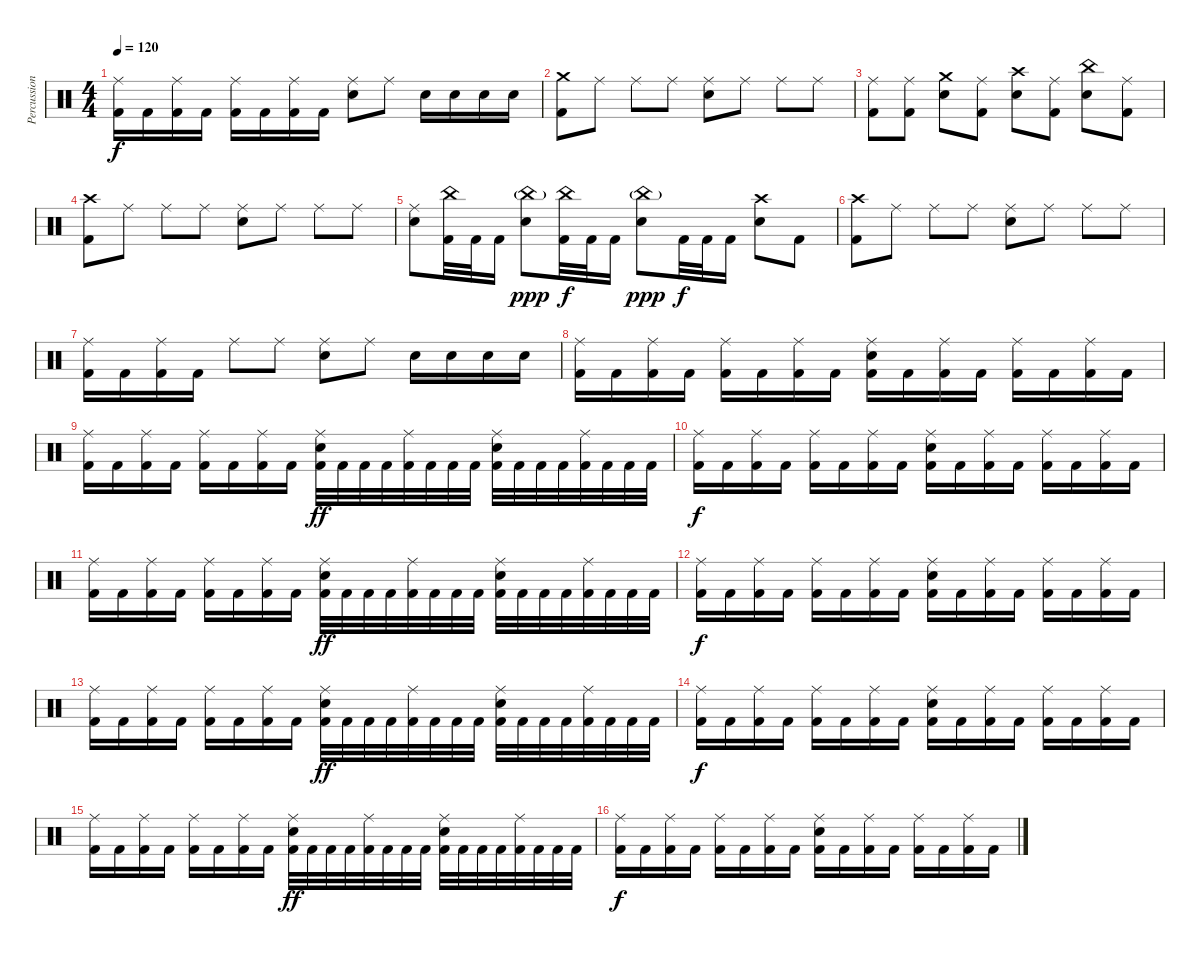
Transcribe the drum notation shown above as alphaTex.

\track ("Percussion" "Percussion") {instrument percussion}
\staff {score}
\articulation defaults
\ts (4 4)
\tempo 120
\clef neutral
\ks c
("Ride (middle)" "Kick (hit) 2").16{dy f} "Kick (hit) 2".16 ("Ride (middle)" "Kick (hit) 2").16 "Kick (hit) 2".16 ("Ride (middle)" "Kick (hit) 2").16 "Kick (hit) 2".16 ("Ride (middle)" "Kick (hit) 2").16 "Kick (hit) 2".16 ("Ride (middle)" "Electric Snare (hit)").8 "Ride (middle)".8 "Electric Snare (hit)".16 "Electric Snare (hit)".16 "Electric Snare (hit)".16 "Electric Snare (hit)".16 |
("Crash medium (hit)" "Kick (hit) 2").8 "Ride (middle)".8 "Ride (middle)".8 "Ride (middle)".8 ("Ride (middle)" "Electric Snare (hit)").8 "Ride (middle)".8 "Ride (middle)".8 "Ride (middle)".8 |
("Ride (middle)" "Kick (hit) 2").8 ("Ride (middle)" "Kick (hit) 2").8 ("Crash medium (hit)" "Electric Snare (hit)").8 ("Ride (middle)" "Kick (hit) 2").8 ("Crash high (hit)" "Electric Snare (hit)").8 ("Ride (middle)" "Kick (hit) 2").8 ("China (hit)" "Electric Snare (hit)").8 ("Ride (middle)" "Kick (hit) 2").8 |
("Crash high (hit)" "Kick (hit) 2").8 "Ride (middle)".8 "Ride (middle)".8 "Ride (middle)".8 ("Ride (middle)" "Electric Snare (hit)").8 "Ride (middle)".8 "Ride (middle)".8 "Ride (middle)".8 |
("Ride (middle)" "Electric Snare (hit)").8 ("China (hit)" "Kick (hit) 2").32 "Kick (hit) 2".32 "Kick (hit) 2".16 ("China (hit)"{g} "Electric Snare (hit)").8{dy ppp} ("China (hit)" "Kick (hit) 2").32{dy f} "Kick (hit) 2".32 "Kick (hit) 2".16 ("China (hit)"{g} "Electric Snare (hit)").8{dy ppp} "Kick (hit) 2".32{dy f} "Kick (hit) 2".32 "Kick (hit) 2".16 ("Crash high (hit)" "Electric Snare (hit)").8 "Kick (hit) 2".8 |
("Crash high (hit)" "Kick (hit) 2").8 "Ride (middle)".8 "Ride (middle)".8 "Ride (middle)".8 ("Ride (middle)" "Electric Snare (hit)").8 "Ride (middle)".8 "Ride (middle)".8 "Ride (middle)".8 |
("Ride (middle)" "Kick (hit) 2").16 "Kick (hit) 2".16 ("Ride (middle)" "Kick (hit) 2").16 "Kick (hit) 2".16 "Ride (middle)".8 "Ride (middle)".8 ("Ride (middle)" "Electric Snare (hit)").8 "Ride (middle)".8 "Electric Snare (hit)".16 "Electric Snare (hit)".16 "Electric Snare (hit)".16 "Electric Snare (hit)".16 |
("Ride (middle)" "Kick (hit) 2").16 "Kick (hit) 2".16 ("Ride (middle)" "Kick (hit) 2").16 "Kick (hit) 2".16 ("Ride (middle)" "Kick (hit) 2").16 "Kick (hit) 2".16 ("Ride (middle)" "Kick (hit) 2").16 "Kick (hit) 2".16 ("Ride (middle)" "Electric Snare (hit)" "Kick (hit) 2").16 "Kick (hit) 2".16 ("Ride (middle)" "Kick (hit) 2").16 "Kick (hit) 2".16 ("Ride (middle)" "Kick (hit) 2").16 "Kick (hit) 2".16 ("Ride (middle)" "Kick (hit) 2").16 "Kick (hit) 2".16 |
("Ride (middle)" "Kick (hit) 2").16 "Kick (hit) 2".16 ("Ride (middle)" "Kick (hit) 2").16 "Kick (hit) 2".16 ("Ride (middle)" "Kick (hit) 2").16 "Kick (hit) 2".16 ("Ride (middle)" "Kick (hit) 2").16 "Kick (hit) 2".16 ("Ride (middle)" "Electric Snare (hit)" "Kick (hit) 2").32{dy ff} "Kick (hit) 2".32 "Kick (hit) 2".32 "Kick (hit) 2".32 ("Ride (middle)" "Kick (hit) 2").32 "Kick (hit) 2".32 "Kick (hit) 2".32 "Kick (hit) 2".32 ("Ride (middle)" "Electric Snare (hit)" "Kick (hit) 2").32 "Kick (hit) 2".32 "Kick (hit) 2".32 "Kick (hit) 2".32 ("Ride (middle)" "Kick (hit) 2").32 "Kick (hit) 2".32 "Kick (hit) 2".32 "Kick (hit) 2".32 |
("Ride (middle)" "Kick (hit) 2").16{dy f} "Kick (hit) 2".16 ("Ride (middle)" "Kick (hit) 2").16 "Kick (hit) 2".16 ("Ride (middle)" "Kick (hit) 2").16 "Kick (hit) 2".16 ("Ride (middle)" "Kick (hit) 2").16 "Kick (hit) 2".16 ("Ride (middle)" "Electric Snare (hit)" "Kick (hit) 2").16 "Kick (hit) 2".16 ("Ride (middle)" "Kick (hit) 2").16 "Kick (hit) 2".16 ("Ride (middle)" "Kick (hit) 2").16 "Kick (hit) 2".16 ("Ride (middle)" "Kick (hit) 2").16 "Kick (hit) 2".16 |
("Ride (middle)" "Kick (hit) 2").16 "Kick (hit) 2".16 ("Ride (middle)" "Kick (hit) 2").16 "Kick (hit) 2".16 ("Ride (middle)" "Kick (hit) 2").16 "Kick (hit) 2".16 ("Ride (middle)" "Kick (hit) 2").16 "Kick (hit) 2".16 ("Ride (middle)" "Electric Snare (hit)" "Kick (hit) 2").32{dy ff} "Kick (hit) 2".32 "Kick (hit) 2".32 "Kick (hit) 2".32 ("Ride (middle)" "Kick (hit) 2").32 "Kick (hit) 2".32 "Kick (hit) 2".32 "Kick (hit) 2".32 ("Ride (middle)" "Electric Snare (hit)" "Kick (hit) 2").32 "Kick (hit) 2".32 "Kick (hit) 2".32 "Kick (hit) 2".32 ("Ride (middle)" "Kick (hit) 2").32 "Kick (hit) 2".32 "Kick (hit) 2".32 "Kick (hit) 2".32 |
("Ride (middle)" "Kick (hit) 2").16{dy f} "Kick (hit) 2".16 ("Ride (middle)" "Kick (hit) 2").16 "Kick (hit) 2".16 ("Ride (middle)" "Kick (hit) 2").16 "Kick (hit) 2".16 ("Ride (middle)" "Kick (hit) 2").16 "Kick (hit) 2".16 ("Ride (middle)" "Electric Snare (hit)" "Kick (hit) 2").16 "Kick (hit) 2".16 ("Ride (middle)" "Kick (hit) 2").16 "Kick (hit) 2".16 ("Ride (middle)" "Kick (hit) 2").16 "Kick (hit) 2".16 ("Ride (middle)" "Kick (hit) 2").16 "Kick (hit) 2".16 |
("Ride (middle)" "Kick (hit) 2").16 "Kick (hit) 2".16 ("Ride (middle)" "Kick (hit) 2").16 "Kick (hit) 2".16 ("Ride (middle)" "Kick (hit) 2").16 "Kick (hit) 2".16 ("Ride (middle)" "Kick (hit) 2").16 "Kick (hit) 2".16 ("Ride (middle)" "Electric Snare (hit)" "Kick (hit) 2").32{dy ff} "Kick (hit) 2".32 "Kick (hit) 2".32 "Kick (hit) 2".32 ("Ride (middle)" "Kick (hit) 2").32 "Kick (hit) 2".32 "Kick (hit) 2".32 "Kick (hit) 2".32 ("Ride (middle)" "Electric Snare (hit)" "Kick (hit) 2").32 "Kick (hit) 2".32 "Kick (hit) 2".32 "Kick (hit) 2".32 ("Ride (middle)" "Kick (hit) 2").32 "Kick (hit) 2".32 "Kick (hit) 2".32 "Kick (hit) 2".32 |
("Ride (middle)" "Kick (hit) 2").16{dy f} "Kick (hit) 2".16 ("Ride (middle)" "Kick (hit) 2").16 "Kick (hit) 2".16 ("Ride (middle)" "Kick (hit) 2").16 "Kick (hit) 2".16 ("Ride (middle)" "Kick (hit) 2").16 "Kick (hit) 2".16 ("Ride (middle)" "Electric Snare (hit)" "Kick (hit) 2").16 "Kick (hit) 2".16 ("Ride (middle)" "Kick (hit) 2").16 "Kick (hit) 2".16 ("Ride (middle)" "Kick (hit) 2").16 "Kick (hit) 2".16 ("Ride (middle)" "Kick (hit) 2").16 "Kick (hit) 2".16 |
("Ride (middle)" "Kick (hit) 2").16 "Kick (hit) 2".16 ("Ride (middle)" "Kick (hit) 2").16 "Kick (hit) 2".16 ("Ride (middle)" "Kick (hit) 2").16 "Kick (hit) 2".16 ("Ride (middle)" "Kick (hit) 2").16 "Kick (hit) 2".16 ("Ride (middle)" "Electric Snare (hit)" "Kick (hit) 2").32{dy ff} "Kick (hit) 2".32 "Kick (hit) 2".32 "Kick (hit) 2".32 ("Ride (middle)" "Kick (hit) 2").32 "Kick (hit) 2".32 "Kick (hit) 2".32 "Kick (hit) 2".32 ("Ride (middle)" "Electric Snare (hit)" "Kick (hit) 2").32 "Kick (hit) 2".32 "Kick (hit) 2".32 "Kick (hit) 2".32 ("Ride (middle)" "Kick (hit) 2").32 "Kick (hit) 2".32 "Kick (hit) 2".32 "Kick (hit) 2".32 |
("Ride (middle)" "Kick (hit) 2").16{dy f} "Kick (hit) 2".16 ("Ride (middle)" "Kick (hit) 2").16 "Kick (hit) 2".16 ("Ride (middle)" "Kick (hit) 2").16 "Kick (hit) 2".16 ("Ride (middle)" "Kick (hit) 2").16 "Kick (hit) 2".16 ("Ride (middle)" "Electric Snare (hit)" "Kick (hit) 2").16 "Kick (hit) 2".16 ("Ride (middle)" "Kick (hit) 2").16 "Kick (hit) 2".16 ("Ride (middle)" "Kick (hit) 2").16 "Kick (hit) 2".16 ("Ride (middle)" "Kick (hit) 2").16 "Kick (hit) 2".16
